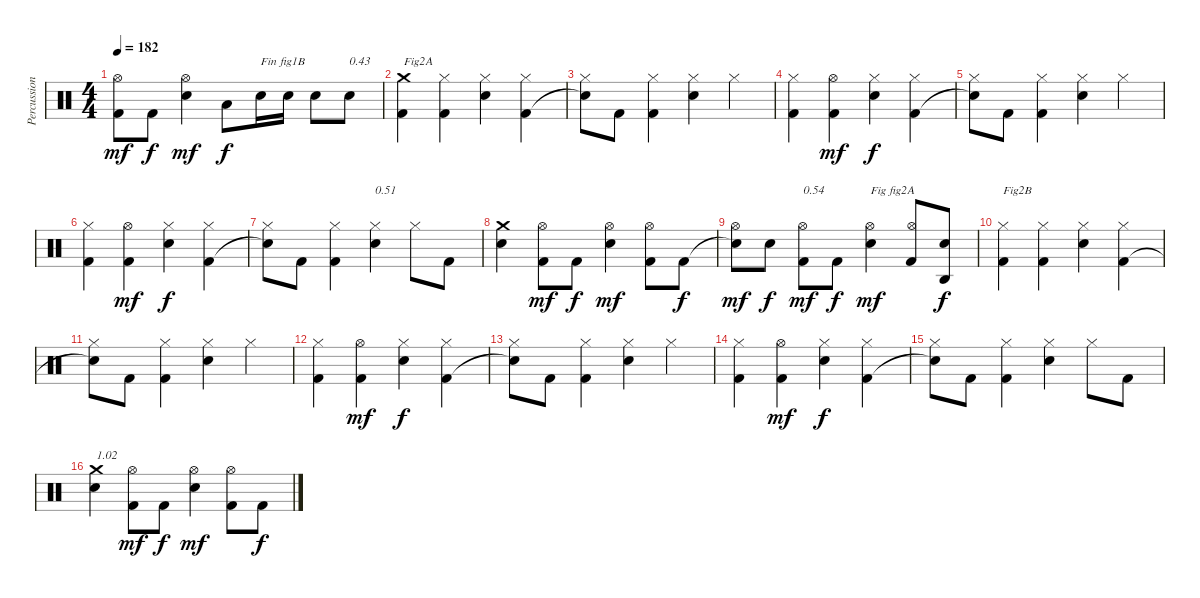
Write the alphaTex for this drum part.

\track ("Percussions" "Percussion") {instrument percussion}
\staff {score}
\articulation defaults
\ts (4 4)
\tempo 182
\clef neutral
\ks c
("Kick (hit) 2" "Hi-Hat (open)").8{dy mf} "Kick (hit) 2".8{dy f} ("Electric Snare (hit)" "Hi-Hat (open)").4{dy mf} "Low Floor Tom (hit)".8{dy f} "Electric Snare (hit)".16{txt "Fin fig1B"} "Electric Snare (hit)".16 "Electric Snare (hit)".8 "Electric Snare (hit)".8{txt "0.43"} |
("Kick (hit) 2" "Crash medium (hit)").4{txt "Fig2A"} ("Kick (hit) 2" "Hi-Hat (closed)").4 ("Electric Snare (hit)" "Hi-Hat (closed)").4 ("Kick (hit) 2" "Hi-Hat (closed)").4 |
("Snare (hit)"{t} "Hi-Hat (closed)").8 "Kick (hit) 2".8 ("Kick (hit) 2" "Hi-Hat (closed)").4 ("Electric Snare (hit)" "Hi-Hat (closed)").4 "Hi-Hat (closed)".4 |
("Kick (hit) 2" "Hi-Hat (closed)").4 ("Kick (hit) 2" "Hi-Hat (open)").4{dy mf} ("Electric Snare (hit)" "Hi-Hat (closed)").4{dy f} ("Kick (hit) 2" "Hi-Hat (closed)").4 |
("Snare (hit)"{t} "Hi-Hat (closed)").8 "Kick (hit) 2".8 ("Kick (hit) 2" "Hi-Hat (closed)").4 ("Electric Snare (hit)" "Hi-Hat (closed)").4 "Hi-Hat (closed)".4 |
("Kick (hit) 2" "Hi-Hat (closed)").4 ("Kick (hit) 2" "Hi-Hat (open)").4{dy mf} ("Electric Snare (hit)" "Hi-Hat (closed)").4{dy f} ("Kick (hit) 2" "Hi-Hat (closed)").4 |
("Snare (hit)"{t} "Hi-Hat (closed)").8 "Kick (hit) 2".8 ("Kick (hit) 2" "Hi-Hat (closed)").4 ("Electric Snare (hit)" "Hi-Hat (closed)").4{txt "0.51"} "Hi-Hat (closed)".8 "Kick (hit) 2".8 |
("Electric Snare (hit)" "Crash medium (hit)").4 ("Kick (hit) 2" "Hi-Hat (open)").8{dy mf} "Kick (hit) 2".8{dy f} ("Electric Snare (hit)" "Hi-Hat (open)").4{dy mf} ("Kick (hit) 2" "Hi-Hat (open)").8 "Kick (hit) 2".8{dy f} |
("Snare (hit)"{t} "Hi-Hat (open)").8{dy mf} "Electric Snare (hit)".8{dy f} ("Kick (hit) 2" "Hi-Hat (open)").8{txt "0.54" dy mf} "Kick (hit) 2".8{dy f} ("Electric Snare (hit)" "Hi-Hat (open)").4{txt "Fig fig2A" dy mf} ("Kick (hit) 2" "Hi-Hat (open)").8 ("Electric Snare (hit)" "Agogo high (hit)").8{dy f} |
("Kick (hit) 2" "Hi-Hat (closed)").4{txt "Fig2B"} ("Kick (hit) 2" "Hi-Hat (closed)").4 ("Electric Snare (hit)" "Hi-Hat (closed)").4 ("Kick (hit) 2" "Hi-Hat (closed)").4 |
("Snare (hit)"{t} "Hi-Hat (closed)").8 "Kick (hit) 2".8 ("Kick (hit) 2" "Hi-Hat (closed)").4 ("Electric Snare (hit)" "Hi-Hat (closed)").4 "Hi-Hat (closed)".4 |
("Kick (hit) 2" "Hi-Hat (closed)").4 ("Kick (hit) 2" "Hi-Hat (open)").4{dy mf} ("Electric Snare (hit)" "Hi-Hat (closed)").4{dy f} ("Kick (hit) 2" "Hi-Hat (closed)").4 |
("Snare (hit)"{t} "Hi-Hat (closed)").8 "Kick (hit) 2".8 ("Kick (hit) 2" "Hi-Hat (closed)").4 ("Electric Snare (hit)" "Hi-Hat (closed)").4 "Hi-Hat (closed)".4 |
("Kick (hit) 2" "Hi-Hat (closed)").4 ("Kick (hit) 2" "Hi-Hat (open)").4{dy mf} ("Electric Snare (hit)" "Hi-Hat (closed)").4{dy f} ("Kick (hit) 2" "Hi-Hat (closed)").4 |
("Snare (hit)"{t} "Hi-Hat (closed)").8 "Kick (hit) 2".8 ("Kick (hit) 2" "Hi-Hat (closed)").4 ("Electric Snare (hit)" "Hi-Hat (closed)").4 "Hi-Hat (closed)".8 "Kick (hit) 2".8 |
("Electric Snare (hit)" "Crash medium (hit)").4{txt "1.02"} ("Kick (hit) 2" "Hi-Hat (open)").8{dy mf} "Kick (hit) 2".8{dy f} ("Electric Snare (hit)" "Hi-Hat (open)").4{dy mf} ("Kick (hit) 2" "Hi-Hat (open)").8 "Kick (hit) 2".8{dy f}
